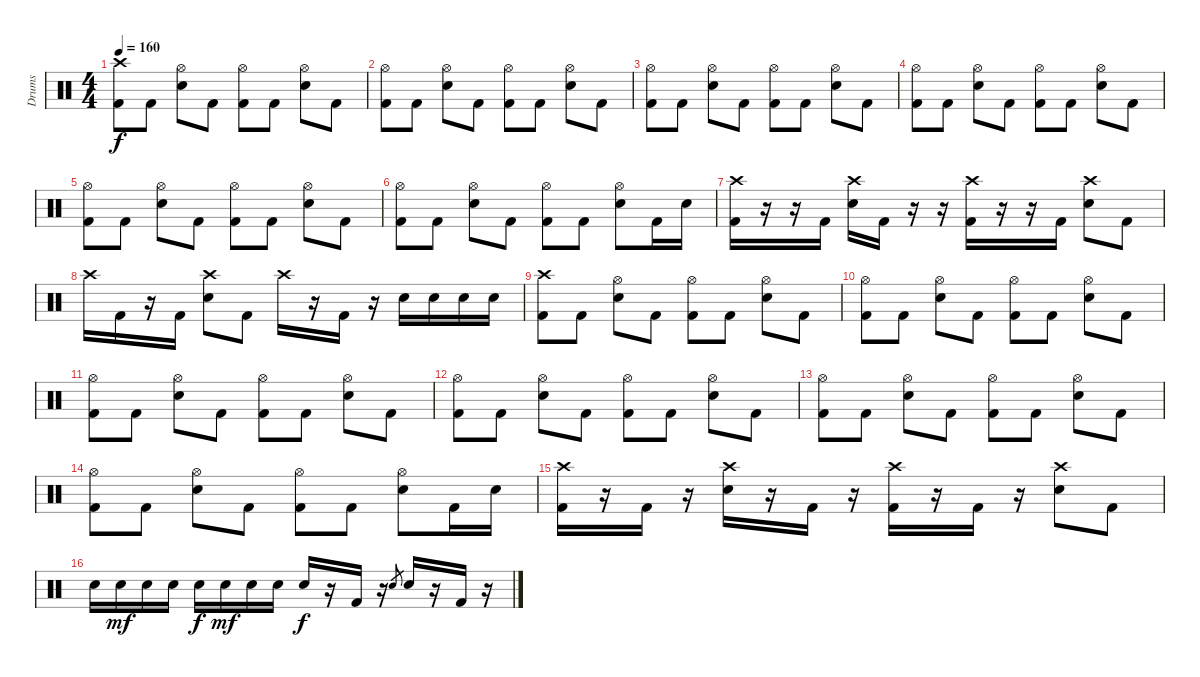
\track ("Drums" "Drums") {instrument percussion}
\staff {score}
\articulation defaults
\ts (4 4)
\tempo 160
\clef neutral
\ks c
("Kick (hit) 2" "Crash high (hit)").8{dy f} "Kick (hit) 2".8 ("Electric Snare (hit)" "Hi-Hat (open)").8 "Kick (hit) 2".8 ("Kick (hit) 2" "Hi-Hat (open)").8 "Kick (hit) 2".8 ("Electric Snare (hit)" "Hi-Hat (open)").8 "Kick (hit) 2".8 |
("Kick (hit) 2" "Hi-Hat (open)").8 "Kick (hit) 2".8 ("Electric Snare (hit)" "Hi-Hat (open)").8 "Kick (hit) 2".8 ("Kick (hit) 2" "Hi-Hat (open)").8 "Kick (hit) 2".8 ("Electric Snare (hit)" "Hi-Hat (open)").8 "Kick (hit) 2".8 |
("Kick (hit) 2" "Hi-Hat (open)").8 "Kick (hit) 2".8 ("Electric Snare (hit)" "Hi-Hat (open)").8 "Kick (hit) 2".8 ("Kick (hit) 2" "Hi-Hat (open)").8 "Kick (hit) 2".8 ("Electric Snare (hit)" "Hi-Hat (open)").8 "Kick (hit) 2".8 |
("Kick (hit) 2" "Hi-Hat (open)").8 "Kick (hit) 2".8 ("Electric Snare (hit)" "Hi-Hat (open)").8 "Kick (hit) 2".8 ("Kick (hit) 2" "Hi-Hat (open)").8 "Kick (hit) 2".8 ("Electric Snare (hit)" "Hi-Hat (open)").8 "Kick (hit) 2".8 |
("Kick (hit) 2" "Hi-Hat (open)").8 "Kick (hit) 2".8 ("Electric Snare (hit)" "Hi-Hat (open)").8 "Kick (hit) 2".8 ("Kick (hit) 2" "Hi-Hat (open)").8 "Kick (hit) 2".8 ("Electric Snare (hit)" "Hi-Hat (open)").8 "Kick (hit) 2".8 |
("Kick (hit) 2" "Hi-Hat (open)").8 "Kick (hit) 2".8 ("Electric Snare (hit)" "Hi-Hat (open)").8 "Kick (hit) 2".8 ("Kick (hit) 2" "Hi-Hat (open)").8 "Kick (hit) 2".8 ("Electric Snare (hit)" "Hi-Hat (open)").8 "Kick (hit) 2".16 "Electric Snare (hit)".16 |
("Kick (hit) 2" "Crash high (hit)").16 r.16 r.16 "Kick (hit) 2".16 ("Electric Snare (hit)" "Crash high (hit)").16 "Kick (hit) 2".16 r.16 r.16 ("Kick (hit) 2" "Crash high (hit)").16 r.16 r.16 "Kick (hit) 2".16 ("Electric Snare (hit)" "Crash high (hit)").8 "Kick (hit) 2".8 |
"Crash high (hit)".16 "Kick (hit) 2".16 r.16 "Kick (hit) 2".16 ("Electric Snare (hit)" "Crash high (hit)").8 "Kick (hit) 2".8 "Crash high (hit)".16 r.16 "Kick (hit) 2".16 r.16 "Electric Snare (hit)".16 "Electric Snare (hit)".16 "Electric Snare (hit)".16 "Electric Snare (hit)".16 |
("Kick (hit) 2" "Crash high (hit)").8 "Kick (hit) 2".8 ("Electric Snare (hit)" "Hi-Hat (open)").8 "Kick (hit) 2".8 ("Kick (hit) 2" "Hi-Hat (open)").8 "Kick (hit) 2".8 ("Electric Snare (hit)" "Hi-Hat (open)").8 "Kick (hit) 2".8 |
("Kick (hit) 2" "Hi-Hat (open)").8 "Kick (hit) 2".8 ("Electric Snare (hit)" "Hi-Hat (open)").8 "Kick (hit) 2".8 ("Kick (hit) 2" "Hi-Hat (open)").8 "Kick (hit) 2".8 ("Electric Snare (hit)" "Hi-Hat (open)").8 "Kick (hit) 2".8 |
("Kick (hit) 2" "Hi-Hat (open)").8 "Kick (hit) 2".8 ("Electric Snare (hit)" "Hi-Hat (open)").8 "Kick (hit) 2".8 ("Kick (hit) 2" "Hi-Hat (open)").8 "Kick (hit) 2".8 ("Electric Snare (hit)" "Hi-Hat (open)").8 "Kick (hit) 2".8 |
("Kick (hit) 2" "Hi-Hat (open)").8 "Kick (hit) 2".8 ("Electric Snare (hit)" "Hi-Hat (open)").8 "Kick (hit) 2".8 ("Kick (hit) 2" "Hi-Hat (open)").8 "Kick (hit) 2".8 ("Electric Snare (hit)" "Hi-Hat (open)").8 "Kick (hit) 2".8 |
("Kick (hit) 2" "Hi-Hat (open)").8 "Kick (hit) 2".8 ("Electric Snare (hit)" "Hi-Hat (open)").8 "Kick (hit) 2".8 ("Kick (hit) 2" "Hi-Hat (open)").8 "Kick (hit) 2".8 ("Electric Snare (hit)" "Hi-Hat (open)").8 "Kick (hit) 2".8 |
("Kick (hit) 2" "Hi-Hat (open)").8 "Kick (hit) 2".8 ("Electric Snare (hit)" "Hi-Hat (open)").8 "Kick (hit) 2".8 ("Kick (hit) 2" "Hi-Hat (open)").8 "Kick (hit) 2".8 ("Electric Snare (hit)" "Hi-Hat (open)").8 "Kick (hit) 2".16 "Electric Snare (hit)".16 |
("Kick (hit) 2" "Crash high (hit)").16 r.16 "Kick (hit) 2".16 r.16 ("Electric Snare (hit)" "Crash high (hit)").16 r.16 "Kick (hit) 2".16 r.16 ("Kick (hit) 2" "Crash high (hit)").16 r.16 "Kick (hit) 2".16 r.16 ("Electric Snare (hit)" "Crash high (hit)").8 "Kick (hit) 2".8 |
"Electric Snare (hit)".16 "Electric Snare (hit)".16{dy mf} "Electric Snare (hit)".16 "Electric Snare (hit)".16 "Electric Snare (hit)".16{dy f} "Electric Snare (hit)".16{dy mf} "Electric Snare (hit)".16 "Electric Snare (hit)".16 "Electric Snare (hit)".16{dy f} r.16 "Kick (hit) 2".16 r.16 "Electric Snare (hit)".8{gr} "Electric Snare (hit)".16 r.16 "Kick (hit) 2".16 r.16
